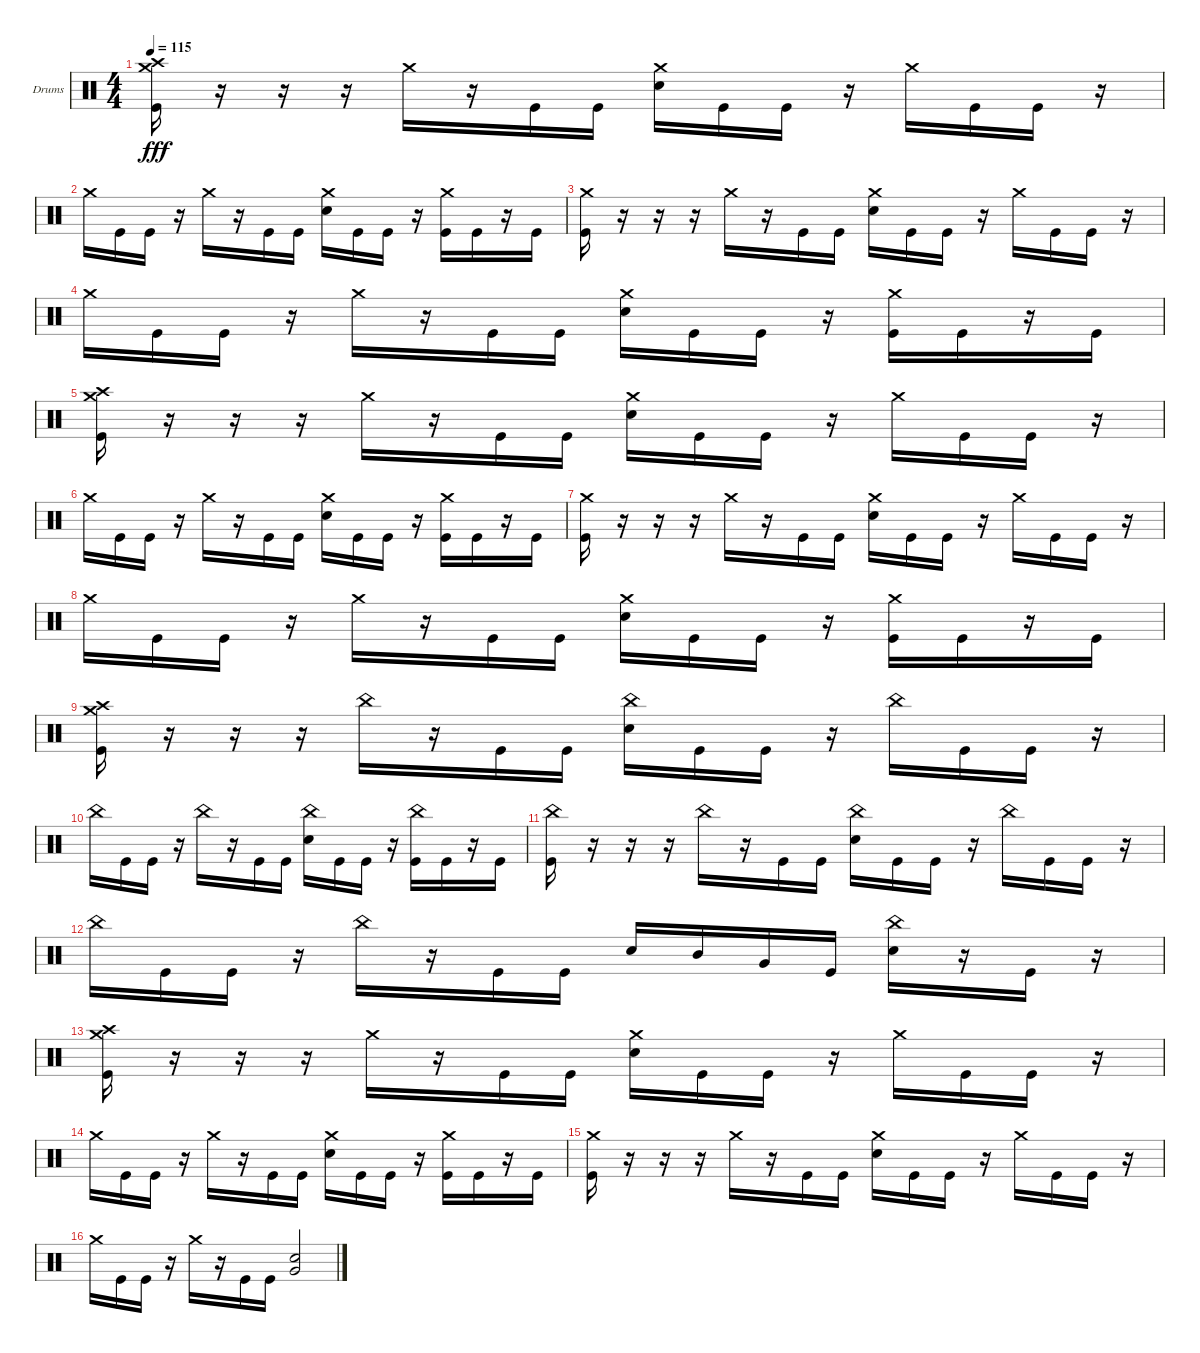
\bracketExtendMode groupsimilarinstruments
\firstSystemTrackNameOrientation horizontal
\otherSystemsTrackNameOrientation horizontal
\track ("Drumkit" "Drums") {instrument percussion}
\staff {score}
\articulation defaults
\ts (4 4)
\tempo 115
\clef neutral
\ks c
("Kick (hit)" "Crash medium (hit)" "Crash high (hit)").16{dy fff} r.16 r.16 r.16 "Crash medium (hit)".16 r.16 "Kick (hit)".16 "Kick (hit)".16 ("Crash medium (hit)" "Snare (hit) 2").16 "Kick (hit)".16 "Kick (hit)".16 r.16 "Crash medium (hit)".16 "Kick (hit)".16 "Kick (hit)".16 r.16 |
"Crash medium (hit)".16 "Kick (hit)".16 "Kick (hit)".16 r.16 "Crash medium (hit)".16 r.16 "Kick (hit)".16 "Kick (hit)".16 ("Crash medium (hit)" "Snare (hit) 2").16 "Kick (hit)".16 "Kick (hit)".16 r.16 ("Crash medium (hit)" "Kick (hit)").16 "Kick (hit)".16 r.16 "Kick (hit)".16 |
("Kick (hit)" "Crash medium (hit)").16 r.16 r.16 r.16 "Crash medium (hit)".16 r.16 "Kick (hit)".16 "Kick (hit)".16 ("Crash medium (hit)" "Snare (hit) 2").16 "Kick (hit)".16 "Kick (hit)".16 r.16 "Crash medium (hit)".16 "Kick (hit)".16 "Kick (hit)".16 r.16 |
"Crash medium (hit)".16 "Kick (hit)".16 "Kick (hit)".16 r.16 "Crash medium (hit)".16 r.16 "Kick (hit)".16 "Kick (hit)".16 ("Crash medium (hit)" "Snare (hit) 2").16 "Kick (hit)".16 "Kick (hit)".16 r.16 ("Crash medium (hit)" "Kick (hit)").16 "Kick (hit)".16 r.16 "Kick (hit)".16 |
("Kick (hit)" "Crash medium (hit)" "Crash high (hit)").16 r.16 r.16 r.16 "Crash medium (hit)".16 r.16 "Kick (hit)".16 "Kick (hit)".16 ("Crash medium (hit)" "Snare (hit) 2").16 "Kick (hit)".16 "Kick (hit)".16 r.16 "Crash medium (hit)".16 "Kick (hit)".16 "Kick (hit)".16 r.16 |
"Crash medium (hit)".16 "Kick (hit)".16 "Kick (hit)".16 r.16 "Crash medium (hit)".16 r.16 "Kick (hit)".16 "Kick (hit)".16 ("Crash medium (hit)" "Snare (hit) 2").16 "Kick (hit)".16 "Kick (hit)".16 r.16 ("Crash medium (hit)" "Kick (hit)").16 "Kick (hit)".16 r.16 "Kick (hit)".16 |
("Kick (hit)" "Crash medium (hit)").16 r.16 r.16 r.16 "Crash medium (hit)".16 r.16 "Kick (hit)".16 "Kick (hit)".16 ("Crash medium (hit)" "Snare (hit) 2").16 "Kick (hit)".16 "Kick (hit)".16 r.16 "Crash medium (hit)".16 "Kick (hit)".16 "Kick (hit)".16 r.16 |
"Crash medium (hit)".16 "Kick (hit)".16 "Kick (hit)".16 r.16 "Crash medium (hit)".16 r.16 "Kick (hit)".16 "Kick (hit)".16 ("Crash medium (hit)" "Snare (hit) 2").16 "Kick (hit)".16 "Kick (hit)".16 r.16 ("Crash medium (hit)" "Kick (hit)").16 "Kick (hit)".16 r.16 "Kick (hit)".16 |
("Kick (hit)" "Crash medium (hit)" "Crash high (hit)").16 r.16 r.16 r.16 "China (hit)".16 r.16 "Kick (hit)".16 "Kick (hit)".16 ("Snare (hit) 2" "China (hit)").16 "Kick (hit)".16 "Kick (hit)".16 r.16 "China (hit)".16 "Kick (hit)".16 "Kick (hit)".16 r.16 |
"China (hit)".16 "Kick (hit)".16 "Kick (hit)".16 r.16 "China (hit)".16 r.16 "Kick (hit)".16 "Kick (hit)".16 ("Snare (hit) 2" "China (hit)").16 "Kick (hit)".16 "Kick (hit)".16 r.16 ("Kick (hit)" "China (hit)").16 "Kick (hit)".16 r.16 "Kick (hit)".16 |
("Kick (hit)" "China (hit)").16 r.16 r.16 r.16 "China (hit)".16 r.16 "Kick (hit)".16 "Kick (hit)".16 ("Snare (hit) 2" "China (hit)").16 "Kick (hit)".16 "Kick (hit)".16 r.16 "China (hit)".16 "Kick (hit)".16 "Kick (hit)".16 r.16 |
"China (hit)".16 "Kick (hit)".16 "Kick (hit)".16 r.16 "China (hit)".16 r.16 "Kick (hit)".16 "Kick (hit)".16 "Snare (hit) 2".16 "Mid Tom (hit)".16 "Very Low Tom (hit)".16 "Kick (hit)".16 ("Snare (hit) 2" "China (hit)").16 r.16 "Kick (hit)".16 r.16 |
("Kick (hit)" "Crash medium (hit)" "Crash high (hit)").16 r.16 r.16 r.16 "Crash medium (hit)".16 r.16 "Kick (hit)".16 "Kick (hit)".16 ("Crash medium (hit)" "Snare (hit) 2").16 "Kick (hit)".16 "Kick (hit)".16 r.16 "Crash medium (hit)".16 "Kick (hit)".16 "Kick (hit)".16 r.16 |
"Crash medium (hit)".16 "Kick (hit)".16 "Kick (hit)".16 r.16 "Crash medium (hit)".16 r.16 "Kick (hit)".16 "Kick (hit)".16 ("Crash medium (hit)" "Snare (hit) 2").16 "Kick (hit)".16 "Kick (hit)".16 r.16 ("Crash medium (hit)" "Kick (hit)").16 "Kick (hit)".16 r.16 "Kick (hit)".16 |
("Kick (hit)" "Crash medium (hit)").16 r.16 r.16 r.16 "Crash medium (hit)".16 r.16 "Kick (hit)".16 "Kick (hit)".16 ("Crash medium (hit)" "Snare (hit) 2").16 "Kick (hit)".16 "Kick (hit)".16 r.16 "Crash medium (hit)".16 "Kick (hit)".16 "Kick (hit)".16 r.16 |
"Crash medium (hit)".16 "Kick (hit)".16 "Kick (hit)".16 r.16 "Crash medium (hit)".16 r.16 "Kick (hit)".16 "Kick (hit)".16 ("Snare (hit) 2" "Very Low Tom (hit)").2
